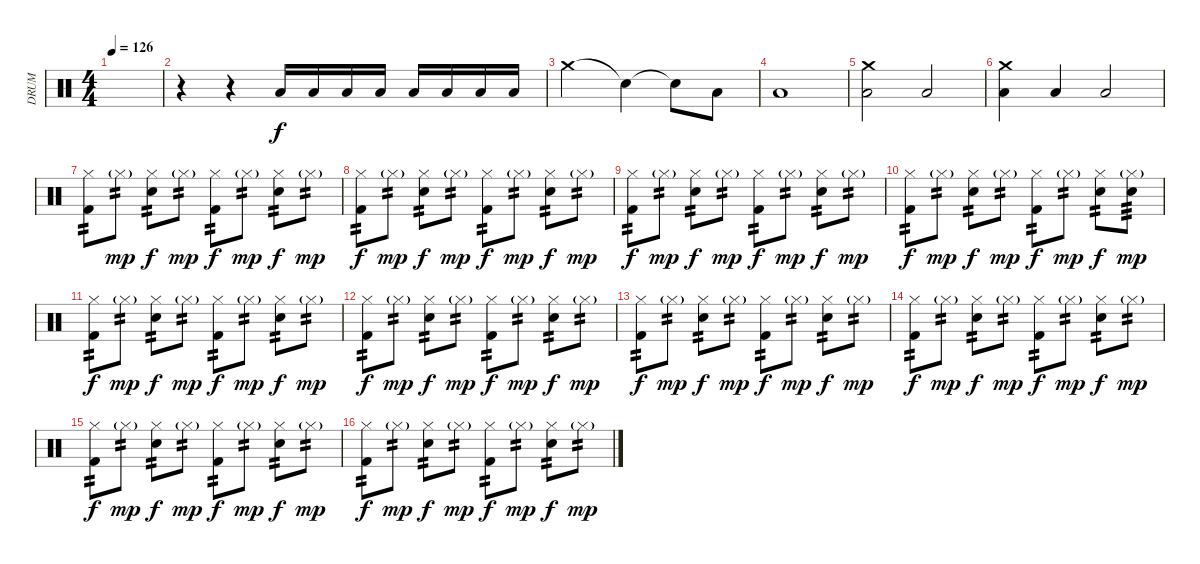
\track ("DRUM" "DRUM") {instrument percussion}
\staff {score}
\articulation defaults
\ts (4 4)
\tempo 126
\clef neutral
\ks c
|
r.4 r.4 "Low Floor Tom (hit)".16 "Low Floor Tom (hit)".16 "Low Floor Tom (hit)".16 "Low Floor Tom (hit)".16 "Low Floor Tom (hit)".16 "Low Floor Tom (hit)".16 "Low Floor Tom (hit)".16 "Low Floor Tom (hit)".16 |
"Crash medium (hit)".2 "Snare (hit)"{t}.4 "Snare (hit)"{t}.8 "Low Floor Tom (hit)".8 |
"Low Floor Tom (hit)".1 |
("Crash medium (hit)" "Low Floor Tom (hit)").2 "Low Floor Tom (hit)".2 |
("Crash medium (hit)" "Low Floor Tom (hit)").4 "Low Floor Tom (hit)".4 "Low Floor Tom (hit)".2 |
("Hi-Hat (closed)" "Kick (hit) 2").8{tp 2} "Hi-Hat (closed)"{g}.8{tp 2 dy mp} ("Hi-Hat (closed)" "Electric Snare (hit)").8{tp 2 dy f} "Hi-Hat (closed)"{g}.8{tp 2 dy mp} ("Hi-Hat (closed)" "Kick (hit) 2").8{tp 2 dy f} "Hi-Hat (closed)"{g}.8{tp 2 dy mp} ("Hi-Hat (closed)" "Electric Snare (hit)").8{tp 2 dy f} "Hi-Hat (closed)"{g}.8{tp 2 dy mp} |
("Hi-Hat (closed)" "Kick (hit) 2").8{tp 2 dy f} "Hi-Hat (closed)"{g}.8{tp 2 dy mp} ("Hi-Hat (closed)" "Electric Snare (hit)").8{tp 2 dy f} "Hi-Hat (closed)"{g}.8{tp 2 dy mp} ("Hi-Hat (closed)" "Kick (hit) 2").8{tp 2 dy f} "Hi-Hat (closed)"{g}.8{tp 2 dy mp} ("Hi-Hat (closed)" "Electric Snare (hit)").8{tp 2 dy f} "Hi-Hat (closed)"{g}.8{tp 2 dy mp} |
("Hi-Hat (closed)" "Kick (hit) 2").8{tp 2 dy f} "Hi-Hat (closed)"{g}.8{tp 2 dy mp} ("Hi-Hat (closed)" "Electric Snare (hit)").8{tp 2 dy f} "Hi-Hat (closed)"{g}.8{tp 2 dy mp} ("Hi-Hat (closed)" "Kick (hit) 2").8{tp 2 dy f} "Hi-Hat (closed)"{g}.8{tp 2 dy mp} ("Hi-Hat (closed)" "Electric Snare (hit)").8{tp 2 dy f} "Hi-Hat (closed)"{g}.8{tp 2 dy mp} |
("Hi-Hat (closed)" "Kick (hit) 2").8{tp 2 dy f} "Hi-Hat (closed)"{g}.8{tp 2 dy mp} ("Hi-Hat (closed)" "Electric Snare (hit)").8{tp 2 dy f} "Hi-Hat (closed)"{g}.8{tp 2 dy mp} ("Hi-Hat (closed)" "Kick (hit) 2").8{tp 2 dy f} "Hi-Hat (closed)"{g}.8{tp 2 dy mp} ("Hi-Hat (closed)" "Electric Snare (hit)").8{tp 2 dy f} ("Hi-Hat (closed)"{g} "Electric Snare (hit)").8{tp 3 dy mp} |
("Hi-Hat (closed)" "Kick (hit) 2").8{tp 2 dy f} "Hi-Hat (closed)"{g}.8{tp 2 dy mp} ("Hi-Hat (closed)" "Electric Snare (hit)").8{tp 2 dy f} "Hi-Hat (closed)"{g}.8{tp 2 dy mp} ("Hi-Hat (closed)" "Kick (hit) 2").8{tp 2 dy f} "Hi-Hat (closed)"{g}.8{tp 2 dy mp} ("Hi-Hat (closed)" "Electric Snare (hit)").8{tp 2 dy f} "Hi-Hat (closed)"{g}.8{tp 2 dy mp} |
("Hi-Hat (closed)" "Kick (hit) 2").8{tp 2 dy f} "Hi-Hat (closed)"{g}.8{tp 2 dy mp} ("Hi-Hat (closed)" "Electric Snare (hit)").8{tp 2 dy f} "Hi-Hat (closed)"{g}.8{tp 2 dy mp} ("Hi-Hat (closed)" "Kick (hit) 2").8{tp 2 dy f} "Hi-Hat (closed)"{g}.8{tp 2 dy mp} ("Hi-Hat (closed)" "Electric Snare (hit)").8{tp 2 dy f} "Hi-Hat (closed)"{g}.8{tp 2 dy mp} |
("Hi-Hat (closed)" "Kick (hit) 2").8{tp 2 dy f} "Hi-Hat (closed)"{g}.8{tp 2 dy mp} ("Hi-Hat (closed)" "Electric Snare (hit)").8{tp 2 dy f} "Hi-Hat (closed)"{g}.8{tp 2 dy mp} ("Hi-Hat (closed)" "Kick (hit) 2").8{tp 2 dy f} "Hi-Hat (closed)"{g}.8{tp 2 dy mp} ("Hi-Hat (closed)" "Electric Snare (hit)").8{tp 2 dy f} "Hi-Hat (closed)"{g}.8{tp 2 dy mp} |
("Hi-Hat (closed)" "Kick (hit) 2").8{tp 2 dy f} "Hi-Hat (closed)"{g}.8{tp 2 dy mp} ("Hi-Hat (closed)" "Electric Snare (hit)").8{tp 2 dy f} "Hi-Hat (closed)"{g}.8{tp 2 dy mp} ("Hi-Hat (closed)" "Kick (hit) 2").8{tp 2 dy f} "Hi-Hat (closed)"{g}.8{tp 2 dy mp} ("Hi-Hat (closed)" "Electric Snare (hit)").8{tp 2 dy f} "Hi-Hat (closed)"{g}.8{tp 2 dy mp} |
("Hi-Hat (closed)" "Kick (hit) 2").8{tp 2 dy f} "Hi-Hat (closed)"{g}.8{tp 2 dy mp} ("Hi-Hat (closed)" "Electric Snare (hit)").8{tp 2 dy f} "Hi-Hat (closed)"{g}.8{tp 2 dy mp} ("Hi-Hat (closed)" "Kick (hit) 2").8{tp 2 dy f} "Hi-Hat (closed)"{g}.8{tp 2 dy mp} ("Hi-Hat (closed)" "Electric Snare (hit)").8{tp 2 dy f} "Hi-Hat (closed)"{g}.8{tp 2 dy mp} |
("Hi-Hat (closed)" "Kick (hit) 2").8{tp 2 dy f} "Hi-Hat (closed)"{g}.8{tp 2 dy mp} ("Hi-Hat (closed)" "Electric Snare (hit)").8{tp 2 dy f} "Hi-Hat (closed)"{g}.8{tp 2 dy mp} ("Hi-Hat (closed)" "Kick (hit) 2").8{tp 2 dy f} "Hi-Hat (closed)"{g}.8{tp 2 dy mp} ("Hi-Hat (closed)" "Electric Snare (hit)").8{tp 2 dy f} "Hi-Hat (closed)"{g}.8{tp 2 dy mp}
